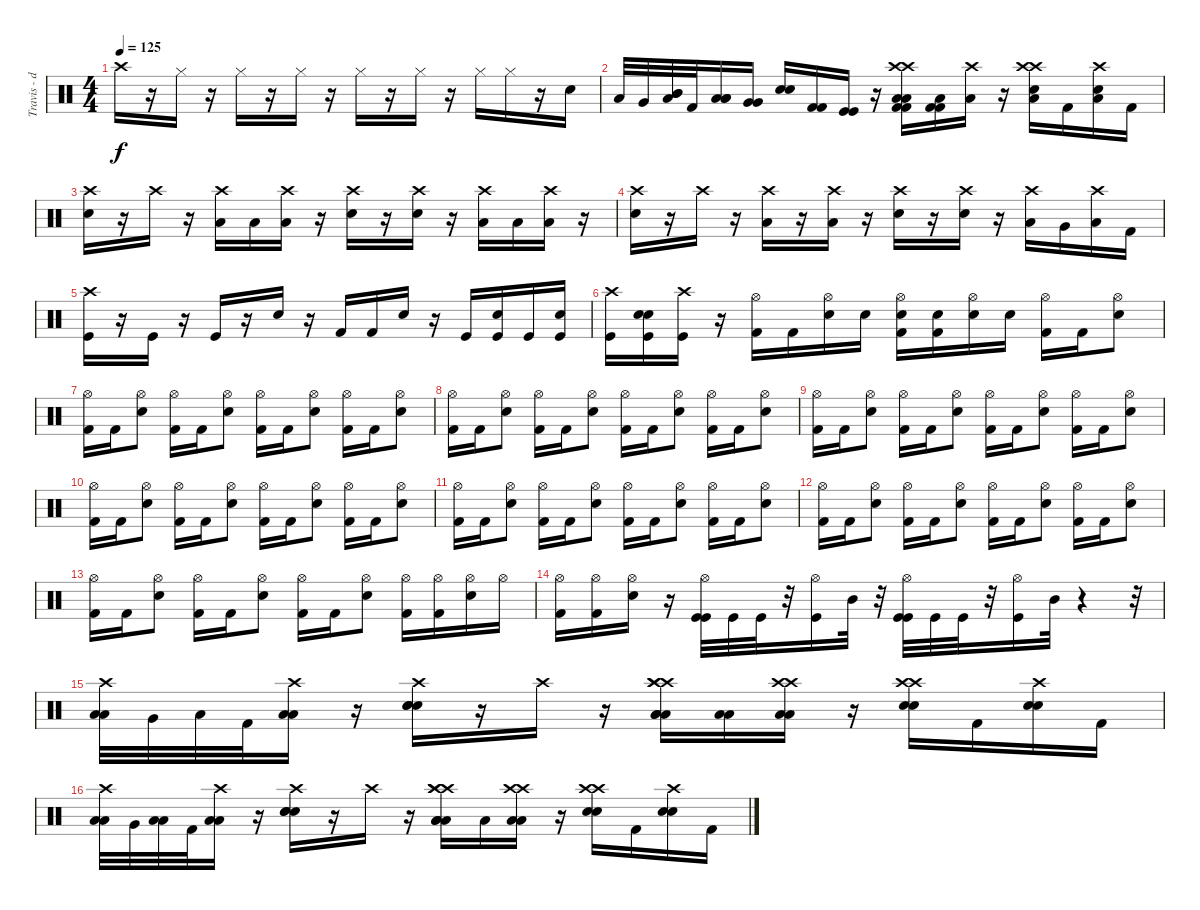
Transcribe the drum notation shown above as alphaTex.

\track ("Travis - drums" "Travis - d") {instrument percussion}
\staff {score}
\articulation defaults
\ts (4 4)
\tempo 125
\clef neutral
\ks c "Crash high (hit)".16{dy f}
r.16 "Hi-Hat (closed)".16 r.16 "Hi-Hat (closed)".16 r.16 "Hi-Hat (closed)".16 r.16 "Hi-Hat (closed)".16 r.16 "Hi-Hat (closed)".16 r.16 "Hi-Hat (closed)".16 "Hi-Hat (closed)".16 r.16 "Snare (hit) 2".16 |
"Low Floor Tom (hit)".32 "Very Low Tom (hit)".32 ("Mid Tom (hit)" "Mid Tom (hit)" "Low Floor Tom (hit)").32 "Kick (hit) 2".32 ("Low Tom (hit)" "Low Tom (hit)" "Low Floor Tom (hit)").16 ("Very Low Tom (hit)" "Very Low Tom (hit)").16 ("Electric Snare (hit)" "Electric Snare (hit)").16 ("Kick (hit) 2" "Kick (hit) 2").16 ("Kick (hit)" "Kick (hit)").16 r.16 ("Kick (hit) 2" "Kick (hit) 2" "Crash high (hit)" "Low Floor Tom (hit)" "Low Floor Tom (hit)" "Crash high (hit)").16 ("Kick (hit) 2" "Kick (hit) 2" "Low Floor Tom (hit)").16 ("Low Floor Tom (hit)" "Crash high (hit)").16 r.16 ("Low Floor Tom (hit)" "Crash high (hit)" "Crash high (hit)" "Electric Snare (hit)").16 "Kick (hit) 2".16 ("Low Floor Tom (hit)" "Crash high (hit)" "Electric Snare (hit)").16 "Kick (hit) 2".16 |
("Electric Snare (hit)" "Crash high (hit)").16 r.16 "Crash high (hit)".16 r.16 ("Low Floor Tom (hit)" "Crash high (hit)").16 "Low Floor Tom (hit)".16 ("Low Floor Tom (hit)" "Crash high (hit)").16 r.16 ("Electric Snare (hit)" "Crash high (hit)").16 r.16 ("Electric Snare (hit)" "Crash high (hit)").16 r.16 ("Low Floor Tom (hit)" "Crash high (hit)").16 "Low Floor Tom (hit)".16 ("Low Floor Tom (hit)" "Crash high (hit)").16 r.16 |
("Electric Snare (hit)" "Crash high (hit)").16 r.16 "Crash high (hit)".16 r.16 ("Low Floor Tom (hit)" "Crash high (hit)").16 r.16 ("Low Floor Tom (hit)" "Crash high (hit)").16 r.16 ("Electric Snare (hit)" "Crash high (hit)").16 r.16 ("Electric Snare (hit)" "Crash high (hit)").16 r.16 ("Low Tom (hit)" "Crash high (hit)").16 "Very Low Tom (hit)".16 ("Low Floor Tom (hit)" "Crash high (hit)").16 "Kick (hit) 2".16 |
("Kick (hit)" "Crash high (hit)").16 r.16 "Kick (hit)".16 r.16 "Kick (hit)".16 r.16 "Electric Snare (hit)".16 r.16 "Kick (hit) 2".16 "Kick (hit) 2".16 "Electric Snare (hit)".16 r.16 "Kick (hit)".16 ("Electric Snare (hit)" "Kick (hit)").16 "Kick (hit)".16 ("Electric Snare (hit)" "Kick (hit)").16 |
("Crash high (hit)" "Kick (hit)").16 ("Electric Snare (hit)" "Electric Snare (hit)" "Kick (hit)").16 ("Crash high (hit)" "Kick (hit)").16 r.16 ("Kick (hit) 2" "Hi-Hat (open)").16 "Kick (hit) 2".16 ("Electric Snare (hit)" "Hi-Hat (open)").16 "Electric Snare (hit)".16 ("Electric Snare (hit)" "Kick (hit) 2" "Hi-Hat (open)").16 ("Electric Snare (hit)" "Kick (hit) 2").16 ("Electric Snare (hit)" "Hi-Hat (open)").16 "Electric Snare (hit)".16 ("Kick (hit) 2" "Hi-Hat (open)").16 "Kick (hit) 2".16 ("Electric Snare (hit)" "Hi-Hat (open)").8 |
("Kick (hit) 2" "Hi-Hat (open)").16 "Kick (hit) 2".16 ("Electric Snare (hit)" "Hi-Hat (open)").8 ("Kick (hit) 2" "Hi-Hat (open)").16 "Kick (hit) 2".16 ("Electric Snare (hit)" "Hi-Hat (open)").8 ("Kick (hit) 2" "Hi-Hat (open)").16 "Kick (hit) 2".16 ("Electric Snare (hit)" "Hi-Hat (open)").8 ("Kick (hit) 2" "Hi-Hat (open)").16 "Kick (hit) 2".16 ("Electric Snare (hit)" "Hi-Hat (open)").8 |
("Kick (hit) 2" "Hi-Hat (open)").16 "Kick (hit) 2".16 ("Electric Snare (hit)" "Hi-Hat (open)").8 ("Kick (hit) 2" "Hi-Hat (open)").16 "Kick (hit) 2".16 ("Electric Snare (hit)" "Hi-Hat (open)").8 ("Kick (hit) 2" "Hi-Hat (open)").16 "Kick (hit) 2".16 ("Electric Snare (hit)" "Hi-Hat (open)").8 ("Kick (hit) 2" "Hi-Hat (open)").16 "Kick (hit) 2".16 ("Electric Snare (hit)" "Hi-Hat (open)").8 |
("Kick (hit) 2" "Hi-Hat (open)").16 "Kick (hit) 2".16 ("Electric Snare (hit)" "Hi-Hat (open)").8 ("Kick (hit) 2" "Hi-Hat (open)").16 "Kick (hit) 2".16 ("Electric Snare (hit)" "Hi-Hat (open)").8 ("Kick (hit) 2" "Hi-Hat (open)").16 "Kick (hit) 2".16 ("Electric Snare (hit)" "Hi-Hat (open)").8 ("Kick (hit) 2" "Hi-Hat (open)").16 "Kick (hit) 2".16 ("Electric Snare (hit)" "Hi-Hat (open)").8 |
("Kick (hit) 2" "Hi-Hat (open)").16 "Kick (hit) 2".16 ("Electric Snare (hit)" "Hi-Hat (open)").8 ("Kick (hit) 2" "Hi-Hat (open)").16 "Kick (hit) 2".16 ("Electric Snare (hit)" "Hi-Hat (open)").8 ("Kick (hit) 2" "Hi-Hat (open)").16 "Kick (hit) 2".16 ("Electric Snare (hit)" "Hi-Hat (open)").8 ("Kick (hit) 2" "Hi-Hat (open)").16 "Kick (hit) 2".16 ("Electric Snare (hit)" "Hi-Hat (open)").8 |
("Kick (hit) 2" "Hi-Hat (open)").16 "Kick (hit) 2".16 ("Electric Snare (hit)" "Hi-Hat (open)").8 ("Kick (hit) 2" "Hi-Hat (open)").16 "Kick (hit) 2".16 ("Electric Snare (hit)" "Hi-Hat (open)").8 ("Kick (hit) 2" "Hi-Hat (open)").16 "Kick (hit) 2".16 ("Electric Snare (hit)" "Hi-Hat (open)").8 ("Kick (hit) 2" "Hi-Hat (open)").16 "Kick (hit) 2".16 ("Electric Snare (hit)" "Hi-Hat (open)").8 |
("Kick (hit) 2" "Hi-Hat (open)").16 "Kick (hit) 2".16 ("Electric Snare (hit)" "Hi-Hat (open)").8 ("Kick (hit) 2" "Hi-Hat (open)").16 "Kick (hit) 2".16 ("Electric Snare (hit)" "Hi-Hat (open)").8 ("Kick (hit) 2" "Hi-Hat (open)").16 "Kick (hit) 2".16 ("Electric Snare (hit)" "Hi-Hat (open)").8 ("Kick (hit) 2" "Hi-Hat (open)").16 "Kick (hit) 2".16 ("Electric Snare (hit)" "Hi-Hat (open)").8 |
("Kick (hit) 2" "Hi-Hat (open)").16 "Kick (hit) 2".16 ("Electric Snare (hit)" "Hi-Hat (open)").8 ("Kick (hit) 2" "Hi-Hat (open)").16 "Kick (hit) 2".16 ("Electric Snare (hit)" "Hi-Hat (open)").8 ("Kick (hit) 2" "Hi-Hat (open)").16 "Kick (hit) 2".16 ("Electric Snare (hit)" "Hi-Hat (open)").8 ("Hi-Hat (open)" "Kick (hit) 2").16 ("Hi-Hat (open)" "Kick (hit) 2").16 ("Hi-Hat (open)" "Electric Snare (hit)").16 "Hi-Hat (open)".16 |
("Kick (hit) 2" "Hi-Hat (open)").16 ("Kick (hit) 2" "Hi-Hat (open)").16 ("Electric Snare (hit)" "Hi-Hat (open)").16 r.16 ("Hi-Hat (open)" "Kick (hit)" "Kick (hit)").32 "Kick (hit)".32 "Kick (hit)".32 r.32 ("Hi-Hat (open)" "Kick (hit)").16 "Mid Tom (hit)".32 r.32 ("Hi-Hat (open)" "Kick (hit)" "Kick (hit)").32 "Kick (hit)".32 "Kick (hit)".32 r.32 ("Hi-Hat (open)" "Kick (hit)").16 "Mid Tom (hit)".32 r.4 r.32 |
("Low Floor Tom (hit)" "Crash high (hit)" "Low Floor Tom (hit)").32 "Very Low Tom (hit)".32 "Low Floor Tom (hit)".32 "Kick (hit) 2".32 ("Low Floor Tom (hit)" "Crash high (hit)" "Low Floor Tom (hit)").16 r.16 ("Electric Snare (hit)" "Crash high (hit)" "Electric Snare (hit)" "Electric Snare (hit)").16 r.16 "Crash high (hit)".16 r.16 ("Low Floor Tom (hit)" "Crash high (hit)" "Crash high (hit)" "Low Floor Tom (hit)" "Low Floor Tom (hit)" "Crash high (hit)").16 ("Low Floor Tom (hit)" "Low Floor Tom (hit)").16 ("Low Floor Tom (hit)" "Crash high (hit)" "Low Floor Tom (hit)" "Crash high (hit)").16 r.16 ("Electric Snare (hit)" "Crash high (hit)" "Crash high (hit)" "Electric Snare (hit)").16 "Kick (hit) 2".16 ("Electric Snare (hit)" "Crash high (hit)" "Electric Snare (hit)").16 "Kick (hit) 2".16 |
("Low Floor Tom (hit)" "Crash high (hit)" "Low Floor Tom (hit)").32 "Very Low Tom (hit)".32 ("Low Floor Tom (hit)" "Low Floor Tom (hit)").32 "Kick (hit) 2".32 ("Low Floor Tom (hit)" "Crash high (hit)" "Low Floor Tom (hit)").16 r.16 ("Electric Snare (hit)" "Crash high (hit)" "Electric Snare (hit)" "Electric Snare (hit)").16 r.16 "Crash high (hit)".16 r.16 ("Low Floor Tom (hit)" "Crash high (hit)" "Crash high (hit)" "Low Floor Tom (hit)" "Low Floor Tom (hit)" "Crash high (hit)").16 "Low Floor Tom (hit)".16 ("Low Floor Tom (hit)" "Crash high (hit)" "Low Floor Tom (hit)" "Crash high (hit)").16 r.16 ("Electric Snare (hit)" "Crash high (hit)" "Crash high (hit)" "Electric Snare (hit)").16 "Kick (hit) 2".16 ("Electric Snare (hit)" "Crash high (hit)" "Electric Snare (hit)").16 "Kick (hit) 2".16
